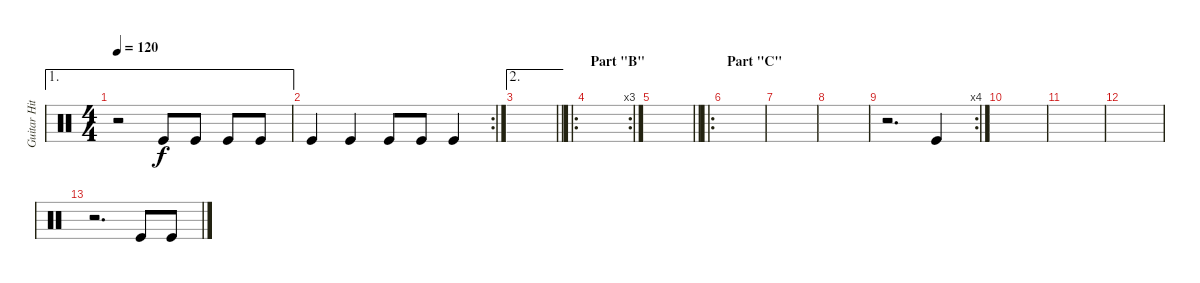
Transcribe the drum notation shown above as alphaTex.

\track ("Guitar Hit" "Guitar Hit") {instrument percussion}
\staff {score}
\articulation defaults
\ae 1
\ts (4 4)
\tempo 120
\clef neutral
\ks c
r.2{dy f} "Kick (hit)".8 "Kick (hit)".8 "Kick (hit)".8 "Kick (hit)".8 |
\rc 2 "Kick (hit)".4 "Kick (hit)".4 "Kick (hit)".8 "Kick (hit)".8 "Kick (hit)".4
|
\ae 2
\barLineRight lightlight
|
\ro
\rc 3
\section ("" "Part \"B\"")
|
\barLineRight lightlight
|
\ro
\section ("" "Part \"C\"")
|
|
|
\rc 4
r.2{d} "Kick (hit)".4 |
|
|
|
r.2{d} "Kick (hit)".8 "Kick (hit)".8
